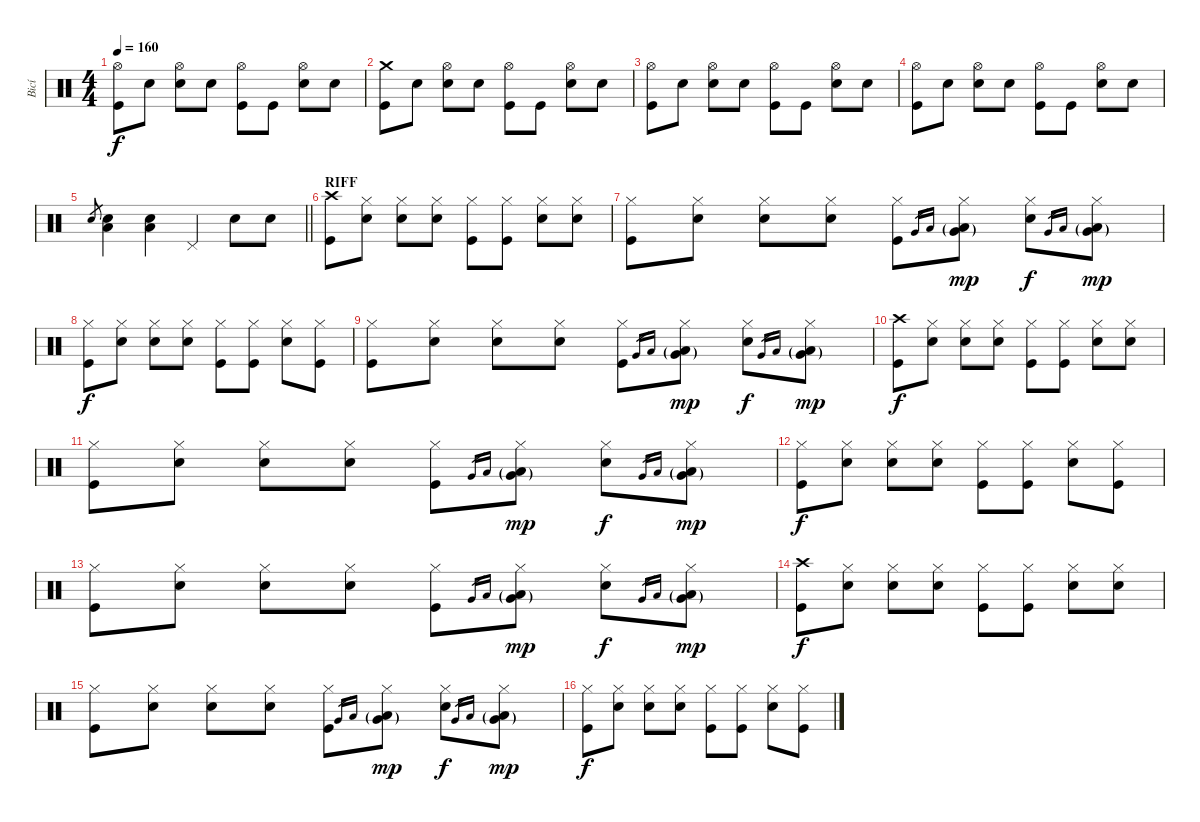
\track ("Bicí" "Bicí") {instrument percussion}
\staff {score}
\articulation defaults
\ts (4 4)
\tempo 160
\clef neutral
\ks c
("Hi-Hat (open)" "Kick (hit)").8{dy f} "Snare (hit)".8 ("Hi-Hat (open)" "Electric Snare (hit)").8 "Snare (hit)".8 ("Hi-Hat (open)" "Kick (hit)").8 "Kick (hit)".8 ("Hi-Hat (open)" "Electric Snare (hit)").8 "Snare (hit)".8 |
("Crash medium (hit)" "Kick (hit)").8 "Snare (hit)".8 ("Hi-Hat (open)" "Electric Snare (hit)").8 "Snare (hit)".8 ("Hi-Hat (open)" "Kick (hit)").8 "Kick (hit)".8 ("Hi-Hat (open)" "Electric Snare (hit)").8 "Snare (hit)".8 |
("Hi-Hat (open)" "Kick (hit)").8 "Snare (hit)".8 ("Hi-Hat (open)" "Electric Snare (hit)").8 "Snare (hit)".8 ("Hi-Hat (open)" "Kick (hit)").8 "Kick (hit)".8 ("Hi-Hat (open)" "Electric Snare (hit)").8 "Snare (hit)".8 |
("Hi-Hat (open)" "Kick (hit)").8 "Snare (hit)".8 ("Hi-Hat (open)" "Electric Snare (hit)").8 "Snare (hit)".8 ("Hi-Hat (open)" "Kick (hit)").8 "Kick (hit)".8 ("Hi-Hat (open)" "Electric Snare (hit)").8 "Snare (hit)".8 |
\barLineRight lightlight "Electric Snare (hit)".8{gr}
("Low Tom (hit)" "Electric Snare (hit)").4 ("Low Tom (hit)" "Electric Snare (hit)").4 "Pedal Hi-Hat (hit)".4 "Electric Snare (hit)".8 "Electric Snare (hit)".8 |
\section ("" "RIFF")
("Crash high (hit)" "Kick (hit)").8 ("Hi-Hat (closed)" "Snare (hit)").8 ("Hi-Hat (closed)" "Electric Snare (hit)").8 ("Hi-Hat (closed)" "Snare (hit)").8 ("Hi-Hat (closed)" "Kick (hit)").8 ("Hi-Hat (closed)" "Kick (hit)").8 ("Hi-Hat (closed)" "Electric Snare (hit)").8 ("Hi-Hat (closed)" "Snare (hit)").8 |
("Hi-Hat (closed)" "Kick (hit)").8 ("Hi-Hat (closed)" "Snare (hit)").8 ("Hi-Hat (closed)" "Electric Snare (hit)").8 ("Hi-Hat (closed)" "Snare (hit)").8 ("Hi-Hat (closed)" "Kick (hit)").8 "Very Low Tom (hit)".16{gr} "Low Floor Tom (hit)".16{gr} ("Hi-Hat (closed)" "Very Low Tom (hit)"{g} "Low Floor Tom (hit)"{g}).8{dy mp} ("Hi-Hat (closed)" "Electric Snare (hit)").8{dy f} "Very Low Tom (hit)".16{gr} "Low Floor Tom (hit)".16{gr} ("Hi-Hat (closed)" "Very Low Tom (hit)"{g} "Low Floor Tom (hit)"{g}).8{dy mp} |
("Hi-Hat (closed)" "Kick (hit)").8{dy f} ("Hi-Hat (closed)" "Snare (hit)").8 ("Hi-Hat (closed)" "Electric Snare (hit)").8 ("Hi-Hat (closed)" "Snare (hit)").8 ("Hi-Hat (closed)" "Kick (hit)").8 ("Hi-Hat (closed)" "Kick (hit)").8 ("Hi-Hat (closed)" "Electric Snare (hit)").8 ("Hi-Hat (closed)" "Kick (hit)").8 |
("Hi-Hat (closed)" "Kick (hit)").8 ("Hi-Hat (closed)" "Snare (hit)").8 ("Hi-Hat (closed)" "Electric Snare (hit)").8 ("Hi-Hat (closed)" "Snare (hit)").8 ("Hi-Hat (closed)" "Kick (hit)").8 "Very Low Tom (hit)".16{gr} "Low Floor Tom (hit)".16{gr} ("Hi-Hat (closed)" "Very Low Tom (hit)"{g} "Low Floor Tom (hit)"{g}).8{dy mp} ("Hi-Hat (closed)" "Electric Snare (hit)").8{dy f} "Very Low Tom (hit)".16{gr} "Low Floor Tom (hit)".16{gr} ("Hi-Hat (closed)" "Very Low Tom (hit)"{g} "Low Floor Tom (hit)"{g}).8{dy mp} |
("Crash high (hit)" "Kick (hit)").8{dy f} ("Hi-Hat (closed)" "Snare (hit)").8 ("Hi-Hat (closed)" "Electric Snare (hit)").8 ("Hi-Hat (closed)" "Snare (hit)").8 ("Hi-Hat (closed)" "Kick (hit)").8 ("Hi-Hat (closed)" "Kick (hit)").8 ("Hi-Hat (closed)" "Electric Snare (hit)").8 ("Hi-Hat (closed)" "Snare (hit)").8 |
("Hi-Hat (closed)" "Kick (hit)").8 ("Hi-Hat (closed)" "Snare (hit)").8 ("Hi-Hat (closed)" "Electric Snare (hit)").8 ("Hi-Hat (closed)" "Snare (hit)").8 ("Hi-Hat (closed)" "Kick (hit)").8 "Very Low Tom (hit)".16{gr} "Low Floor Tom (hit)".16{gr} ("Hi-Hat (closed)" "Very Low Tom (hit)"{g} "Low Floor Tom (hit)"{g}).8{dy mp} ("Hi-Hat (closed)" "Electric Snare (hit)").8{dy f} "Very Low Tom (hit)".16{gr} "Low Floor Tom (hit)".16{gr} ("Hi-Hat (closed)" "Very Low Tom (hit)"{g} "Low Floor Tom (hit)"{g}).8{dy mp} |
("Hi-Hat (closed)" "Kick (hit)").8{dy f} ("Hi-Hat (closed)" "Snare (hit)").8 ("Hi-Hat (closed)" "Electric Snare (hit)").8 ("Hi-Hat (closed)" "Snare (hit)").8 ("Hi-Hat (closed)" "Kick (hit)").8 ("Hi-Hat (closed)" "Kick (hit)").8 ("Hi-Hat (closed)" "Electric Snare (hit)").8 ("Hi-Hat (closed)" "Kick (hit)").8 |
("Hi-Hat (closed)" "Kick (hit)").8 ("Hi-Hat (closed)" "Snare (hit)").8 ("Hi-Hat (closed)" "Electric Snare (hit)").8 ("Hi-Hat (closed)" "Snare (hit)").8 ("Hi-Hat (closed)" "Kick (hit)").8 "Very Low Tom (hit)".16{gr} "Low Floor Tom (hit)".16{gr} ("Hi-Hat (closed)" "Very Low Tom (hit)"{g} "Low Floor Tom (hit)"{g}).8{dy mp} ("Hi-Hat (closed)" "Electric Snare (hit)").8{dy f} "Very Low Tom (hit)".16{gr} "Low Floor Tom (hit)".16{gr} ("Hi-Hat (closed)" "Very Low Tom (hit)"{g} "Low Floor Tom (hit)"{g}).8{dy mp} |
("Crash high (hit)" "Kick (hit)").8{dy f} ("Hi-Hat (closed)" "Snare (hit)").8 ("Hi-Hat (closed)" "Electric Snare (hit)").8 ("Hi-Hat (closed)" "Snare (hit)").8 ("Hi-Hat (closed)" "Kick (hit)").8 ("Hi-Hat (closed)" "Kick (hit)").8 ("Hi-Hat (closed)" "Electric Snare (hit)").8 ("Hi-Hat (closed)" "Snare (hit)").8 |
("Hi-Hat (closed)" "Kick (hit)").8 ("Hi-Hat (closed)" "Snare (hit)").8 ("Hi-Hat (closed)" "Electric Snare (hit)").8 ("Hi-Hat (closed)" "Snare (hit)").8 ("Hi-Hat (closed)" "Kick (hit)").8 "Very Low Tom (hit)".16{gr} "Low Floor Tom (hit)".16{gr} ("Hi-Hat (closed)" "Very Low Tom (hit)"{g} "Low Floor Tom (hit)"{g}).8{dy mp} ("Hi-Hat (closed)" "Electric Snare (hit)").8{dy f} "Very Low Tom (hit)".16{gr} "Low Floor Tom (hit)".16{gr} ("Hi-Hat (closed)" "Very Low Tom (hit)"{g} "Low Floor Tom (hit)"{g}).8{dy mp} |
("Hi-Hat (closed)" "Kick (hit)").8{dy f} ("Hi-Hat (closed)" "Snare (hit)").8 ("Hi-Hat (closed)" "Electric Snare (hit)").8 ("Hi-Hat (closed)" "Snare (hit)").8 ("Hi-Hat (closed)" "Kick (hit)").8 ("Hi-Hat (closed)" "Kick (hit)").8 ("Hi-Hat (closed)" "Electric Snare (hit)").8 ("Hi-Hat (closed)" "Kick (hit)").8
